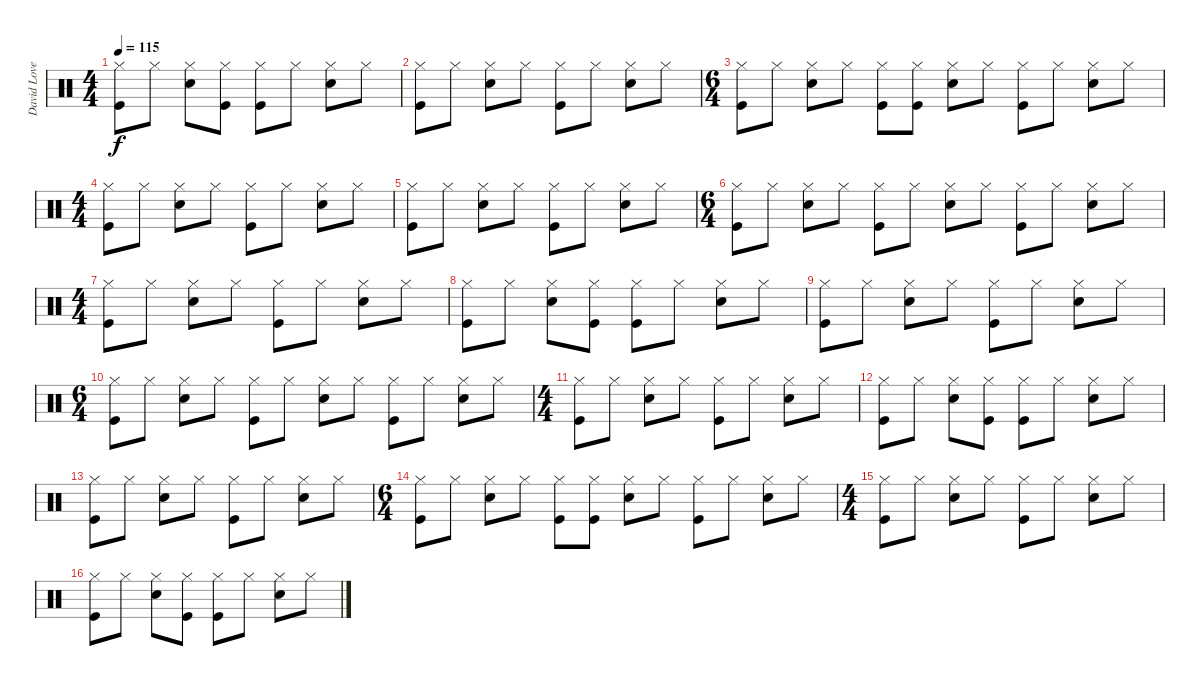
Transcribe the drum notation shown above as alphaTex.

\track ("David Lovering" "David Love") {instrument percussion}
\staff {score}
\articulation defaults
\ts (4 4)
\tempo 115
\clef neutral
\ks c
("Hi-Hat (closed)" "Kick (hit)").8{dy f} "Hi-Hat (closed)".8 ("Hi-Hat (closed)" "Snare (hit) 2").8 ("Hi-Hat (closed)" "Kick (hit)").8 ("Hi-Hat (closed)" "Kick (hit)").8 "Hi-Hat (closed)".8 ("Hi-Hat (closed)" "Snare (hit) 2").8 "Hi-Hat (closed)".8 |
("Hi-Hat (closed)" "Kick (hit)").8 "Hi-Hat (closed)".8 ("Hi-Hat (closed)" "Snare (hit) 2").8 "Hi-Hat (closed)".8 ("Hi-Hat (closed)" "Kick (hit)").8 "Hi-Hat (closed)".8 ("Hi-Hat (closed)" "Snare (hit) 2").8 "Hi-Hat (closed)".8 |
\ts (6 4)
("Hi-Hat (closed)" "Kick (hit)").8 "Hi-Hat (closed)".8 ("Hi-Hat (closed)" "Snare (hit) 2").8 "Hi-Hat (closed)".8 ("Hi-Hat (closed)" "Kick (hit)").8 ("Hi-Hat (closed)" "Kick (hit)").8 ("Hi-Hat (closed)" "Snare (hit) 2").8 "Hi-Hat (closed)".8 ("Hi-Hat (closed)" "Kick (hit)").8 "Hi-Hat (closed)".8 ("Hi-Hat (closed)" "Snare (hit) 2").8 "Hi-Hat (closed)".8 |
\ts (4 4)
("Hi-Hat (closed)" "Kick (hit)").8 "Hi-Hat (closed)".8 ("Hi-Hat (closed)" "Snare (hit) 2").8 "Hi-Hat (closed)".8 ("Hi-Hat (closed)" "Kick (hit)").8 "Hi-Hat (closed)".8 ("Hi-Hat (closed)" "Snare (hit) 2").8 "Hi-Hat (closed)".8 |
("Hi-Hat (closed)" "Kick (hit)").8 "Hi-Hat (closed)".8 ("Hi-Hat (closed)" "Snare (hit) 2").8 "Hi-Hat (closed)".8 ("Hi-Hat (closed)" "Kick (hit)").8 "Hi-Hat (closed)".8 ("Hi-Hat (closed)" "Snare (hit) 2").8 "Hi-Hat (closed)".8 |
\ts (6 4)
("Hi-Hat (closed)" "Kick (hit)").8 "Hi-Hat (closed)".8 ("Hi-Hat (closed)" "Snare (hit) 2").8 "Hi-Hat (closed)".8 ("Hi-Hat (closed)" "Kick (hit)").8 "Hi-Hat (closed)".8 ("Hi-Hat (closed)" "Snare (hit) 2").8 "Hi-Hat (closed)".8 ("Hi-Hat (closed)" "Kick (hit)").8 "Hi-Hat (closed)".8 ("Hi-Hat (closed)" "Snare (hit) 2").8 "Hi-Hat (closed)".8 |
\ts (4 4)
("Hi-Hat (closed)" "Kick (hit)").8 "Hi-Hat (closed)".8 ("Hi-Hat (closed)" "Snare (hit) 2").8 "Hi-Hat (closed)".8 ("Hi-Hat (closed)" "Kick (hit)").8 "Hi-Hat (closed)".8 ("Hi-Hat (closed)" "Snare (hit) 2").8 "Hi-Hat (closed)".8 |
("Hi-Hat (closed)" "Kick (hit)").8 "Hi-Hat (closed)".8 ("Hi-Hat (closed)" "Snare (hit) 2").8 ("Hi-Hat (closed)" "Kick (hit)").8 ("Hi-Hat (closed)" "Kick (hit)").8 "Hi-Hat (closed)".8 ("Hi-Hat (closed)" "Snare (hit) 2").8 "Hi-Hat (closed)".8 |
("Hi-Hat (closed)" "Kick (hit)").8 "Hi-Hat (closed)".8 ("Hi-Hat (closed)" "Snare (hit) 2").8 "Hi-Hat (closed)".8 ("Hi-Hat (closed)" "Kick (hit)").8 "Hi-Hat (closed)".8 ("Hi-Hat (closed)" "Snare (hit) 2").8 "Hi-Hat (closed)".8 |
\ts (6 4)
("Hi-Hat (closed)" "Kick (hit)").8 "Hi-Hat (closed)".8 ("Hi-Hat (closed)" "Snare (hit) 2").8 "Hi-Hat (closed)".8 ("Hi-Hat (closed)" "Kick (hit)").8 "Hi-Hat (closed)".8 ("Hi-Hat (closed)" "Snare (hit) 2").8 "Hi-Hat (closed)".8 ("Hi-Hat (closed)" "Kick (hit)").8 "Hi-Hat (closed)".8 ("Hi-Hat (closed)" "Snare (hit) 2").8 "Hi-Hat (closed)".8 |
\ts (4 4)
("Hi-Hat (closed)" "Kick (hit)").8 "Hi-Hat (closed)".8 ("Hi-Hat (closed)" "Snare (hit) 2").8 "Hi-Hat (closed)".8 ("Hi-Hat (closed)" "Kick (hit)").8 "Hi-Hat (closed)".8 ("Hi-Hat (closed)" "Snare (hit) 2").8 "Hi-Hat (closed)".8 |
("Hi-Hat (closed)" "Kick (hit)").8 "Hi-Hat (closed)".8 ("Hi-Hat (closed)" "Snare (hit) 2").8 ("Hi-Hat (closed)" "Kick (hit)").8 ("Hi-Hat (closed)" "Kick (hit)").8 "Hi-Hat (closed)".8 ("Hi-Hat (closed)" "Snare (hit) 2").8 "Hi-Hat (closed)".8 |
("Hi-Hat (closed)" "Kick (hit)").8 "Hi-Hat (closed)".8 ("Hi-Hat (closed)" "Snare (hit) 2").8 "Hi-Hat (closed)".8 ("Hi-Hat (closed)" "Kick (hit)").8 "Hi-Hat (closed)".8 ("Hi-Hat (closed)" "Snare (hit) 2").8 "Hi-Hat (closed)".8 |
\ts (6 4)
("Hi-Hat (closed)" "Kick (hit)").8 "Hi-Hat (closed)".8 ("Hi-Hat (closed)" "Snare (hit) 2").8 "Hi-Hat (closed)".8 ("Hi-Hat (closed)" "Kick (hit)").8 ("Hi-Hat (closed)" "Kick (hit)").8 ("Hi-Hat (closed)" "Snare (hit) 2").8 "Hi-Hat (closed)".8 ("Hi-Hat (closed)" "Kick (hit)").8 "Hi-Hat (closed)".8 ("Hi-Hat (closed)" "Snare (hit) 2").8 "Hi-Hat (closed)".8 |
\ts (4 4)
\section ("" "")
("Hi-Hat (closed)" "Kick (hit)").8 "Hi-Hat (closed)".8 ("Hi-Hat (closed)" "Snare (hit) 2").8 "Hi-Hat (closed)".8 ("Hi-Hat (closed)" "Kick (hit)").8 "Hi-Hat (closed)".8 ("Hi-Hat (closed)" "Snare (hit) 2").8 "Hi-Hat (closed)".8 |
("Hi-Hat (closed)" "Kick (hit)").8 "Hi-Hat (closed)".8 ("Hi-Hat (closed)" "Snare (hit) 2").8 ("Hi-Hat (closed)" "Kick (hit)").8 ("Hi-Hat (closed)" "Kick (hit)").8 "Hi-Hat (closed)".8 ("Hi-Hat (closed)" "Snare (hit) 2").8 "Hi-Hat (closed)".8
